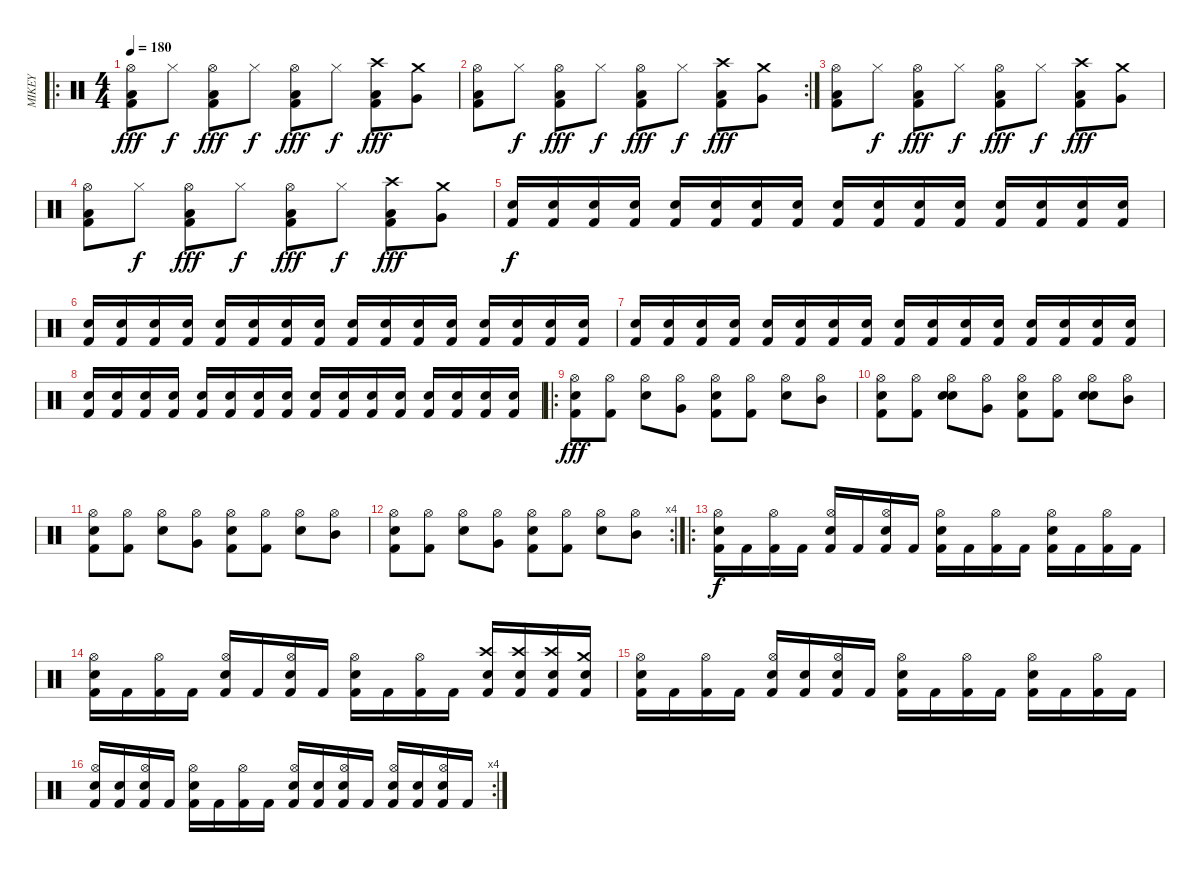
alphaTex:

\track ("MIKEY" "MIKEY") {instrument percussion}
\staff {score}
\articulation defaults
\ro
\ts (4 4)
\tempo 180
\clef neutral
\ks c
("Low Floor Tom (hit)" "Kick (hit) 2" "Hi-Hat (open)").8{dy fff} "Hi-Hat (closed)".8{dy f} ("Low Floor Tom (hit)" "Kick (hit) 2" "Hi-Hat (open)").8{dy fff} "Hi-Hat (closed)".8{dy f} ("Low Floor Tom (hit)" "Kick (hit) 2" "Hi-Hat (open)").8{dy fff} "Hi-Hat (closed)".8{dy f} ("Low Floor Tom (hit)" "Kick (hit) 2" "Crash high (hit)").8{dy fff} ("Very Low Tom (hit)" "Crash medium (hit)").8 |
\rc 2
("Low Floor Tom (hit)" "Kick (hit) 2" "Hi-Hat (open)").8 "Hi-Hat (closed)".8{dy f} ("Low Floor Tom (hit)" "Kick (hit) 2" "Hi-Hat (open)").8{dy fff} "Hi-Hat (closed)".8{dy f} ("Low Floor Tom (hit)" "Kick (hit) 2" "Hi-Hat (open)").8{dy fff} "Hi-Hat (closed)".8{dy f} ("Low Floor Tom (hit)" "Kick (hit) 2" "Crash high (hit)").8{dy fff} ("Very Low Tom (hit)" "Crash medium (hit)").8 |
("Low Floor Tom (hit)" "Kick (hit) 2" "Hi-Hat (open)").8 "Hi-Hat (closed)".8{dy f} ("Low Floor Tom (hit)" "Kick (hit) 2" "Hi-Hat (open)").8{dy fff} "Hi-Hat (closed)".8{dy f} ("Low Floor Tom (hit)" "Kick (hit) 2" "Hi-Hat (open)").8{dy fff} "Hi-Hat (closed)".8{dy f} ("Low Floor Tom (hit)" "Kick (hit) 2" "Crash high (hit)").8{dy fff} ("Very Low Tom (hit)" "Crash medium (hit)").8 |
("Low Floor Tom (hit)" "Kick (hit) 2" "Hi-Hat (open)").8 "Hi-Hat (closed)".8{dy f} ("Low Floor Tom (hit)" "Kick (hit) 2" "Hi-Hat (open)").8{dy fff} "Hi-Hat (closed)".8{dy f} ("Low Floor Tom (hit)" "Kick (hit) 2" "Hi-Hat (open)").8{dy fff} "Hi-Hat (closed)".8{dy f} ("Low Floor Tom (hit)" "Kick (hit) 2" "Crash high (hit)").8{dy fff} ("Very Low Tom (hit)" "Crash medium (hit)").8 |
("Kick (hit) 2" "Electric Snare (hit)").16{dy f} ("Kick (hit) 2" "Electric Snare (hit)").16 ("Kick (hit) 2" "Electric Snare (hit)").16 ("Kick (hit) 2" "Electric Snare (hit)").16 ("Kick (hit) 2" "Electric Snare (hit)").16 ("Kick (hit) 2" "Electric Snare (hit)").16 ("Kick (hit) 2" "Electric Snare (hit)").16 ("Kick (hit) 2" "Electric Snare (hit)").16 ("Kick (hit) 2" "Electric Snare (hit)").16 ("Kick (hit) 2" "Electric Snare (hit)").16 ("Kick (hit) 2" "Electric Snare (hit)").16 ("Kick (hit) 2" "Electric Snare (hit)").16 ("Kick (hit) 2" "Electric Snare (hit)").16 ("Kick (hit) 2" "Electric Snare (hit)").16 ("Kick (hit) 2" "Electric Snare (hit)").16 ("Kick (hit) 2" "Electric Snare (hit)").16 |
("Kick (hit) 2" "Electric Snare (hit)").16 ("Kick (hit) 2" "Electric Snare (hit)").16 ("Kick (hit) 2" "Electric Snare (hit)").16 ("Kick (hit) 2" "Electric Snare (hit)").16 ("Kick (hit) 2" "Electric Snare (hit)").16 ("Kick (hit) 2" "Electric Snare (hit)").16 ("Kick (hit) 2" "Electric Snare (hit)").16 ("Kick (hit) 2" "Electric Snare (hit)").16 ("Kick (hit) 2" "Electric Snare (hit)").16 ("Kick (hit) 2" "Electric Snare (hit)").16 ("Kick (hit) 2" "Electric Snare (hit)").16 ("Kick (hit) 2" "Electric Snare (hit)").16 ("Kick (hit) 2" "Electric Snare (hit)").16 ("Kick (hit) 2" "Electric Snare (hit)").16 ("Kick (hit) 2" "Electric Snare (hit)").16 ("Kick (hit) 2" "Electric Snare (hit)").16 |
("Kick (hit) 2" "Electric Snare (hit)").16 ("Kick (hit) 2" "Electric Snare (hit)").16 ("Kick (hit) 2" "Electric Snare (hit)").16 ("Kick (hit) 2" "Electric Snare (hit)").16 ("Kick (hit) 2" "Electric Snare (hit)").16 ("Kick (hit) 2" "Electric Snare (hit)").16 ("Kick (hit) 2" "Electric Snare (hit)").16 ("Kick (hit) 2" "Electric Snare (hit)").16 ("Kick (hit) 2" "Electric Snare (hit)").16 ("Kick (hit) 2" "Electric Snare (hit)").16 ("Kick (hit) 2" "Electric Snare (hit)").16 ("Kick (hit) 2" "Electric Snare (hit)").16 ("Kick (hit) 2" "Electric Snare (hit)").16 ("Kick (hit) 2" "Electric Snare (hit)").16 ("Kick (hit) 2" "Electric Snare (hit)").16 ("Kick (hit) 2" "Electric Snare (hit)").16 |
("Kick (hit) 2" "Electric Snare (hit)").16 ("Kick (hit) 2" "Electric Snare (hit)").16 ("Kick (hit) 2" "Electric Snare (hit)").16 ("Kick (hit) 2" "Electric Snare (hit)").16 ("Kick (hit) 2" "Electric Snare (hit)").16 ("Kick (hit) 2" "Electric Snare (hit)").16 ("Kick (hit) 2" "Electric Snare (hit)").16 ("Kick (hit) 2" "Electric Snare (hit)").16 ("Kick (hit) 2" "Electric Snare (hit)").16 ("Kick (hit) 2" "Electric Snare (hit)").16 ("Kick (hit) 2" "Electric Snare (hit)").16 ("Kick (hit) 2" "Electric Snare (hit)").16 ("Kick (hit) 2" "Electric Snare (hit)").16 ("Kick (hit) 2" "Electric Snare (hit)").16 ("Kick (hit) 2" "Electric Snare (hit)").16 ("Kick (hit) 2" "Electric Snare (hit)").16 |
\ro
("Electric Snare (hit)" "Hi-Hat (open)" "Kick (hit) 2").8{dy fff} ("Hi-Hat (open)" "Kick (hit) 2").8 ("Hi-Hat (open)" "Snare (hit) 2").8 ("Hi-Hat (open)" "Very Low Tom (hit)").8 ("Electric Snare (hit)" "Hi-Hat (open)" "Kick (hit) 2").8 ("Hi-Hat (open)" "Kick (hit) 2").8 ("Hi-Hat (open)" "Snare (hit) 2").8 ("Hi-Hat (open)" "Mid Tom (hit)").8 |
("Electric Snare (hit)" "Hi-Hat (open)" "Kick (hit) 2").8 ("Hi-Hat (open)" "Kick (hit) 2").8 ("Electric Snare (hit)" "Hi-Hat (open)" "Snare (hit) 2").8 ("Hi-Hat (open)" "Very Low Tom (hit)").8 ("Electric Snare (hit)" "Hi-Hat (open)" "Kick (hit) 2").8 ("Hi-Hat (open)" "Kick (hit) 2").8 ("Electric Snare (hit)" "Hi-Hat (open)" "Snare (hit) 2").8 ("Hi-Hat (open)" "Mid Tom (hit)").8 |
("Electric Snare (hit)" "Hi-Hat (open)" "Kick (hit) 2").8 ("Hi-Hat (open)" "Kick (hit) 2").8 ("Hi-Hat (open)" "Snare (hit) 2").8 ("Hi-Hat (open)" "Very Low Tom (hit)").8 ("Electric Snare (hit)" "Hi-Hat (open)" "Kick (hit) 2").8 ("Hi-Hat (open)" "Kick (hit) 2").8 ("Hi-Hat (open)" "Snare (hit) 2").8 ("Hi-Hat (open)" "Mid Tom (hit)").8 |
\rc 4
("Electric Snare (hit)" "Hi-Hat (open)" "Kick (hit) 2").8 ("Hi-Hat (open)" "Kick (hit) 2").8 ("Hi-Hat (open)" "Snare (hit) 2").8 ("Hi-Hat (open)" "Very Low Tom (hit)").8 ("Electric Snare (hit)" "Hi-Hat (open)" "Kick (hit) 2").8 ("Hi-Hat (open)" "Kick (hit) 2").8 ("Hi-Hat (open)" "Snare (hit) 2").8 ("Hi-Hat (open)" "Mid Tom (hit)").8 |
\ro
("Hi-Hat (open)" "Electric Snare (hit)" "Kick (hit) 2").16{dy f} "Kick (hit) 2".16 ("Hi-Hat (open)" "Kick (hit) 2").16 "Kick (hit) 2".16 ("Hi-Hat (open)" "Electric Snare (hit)" "Kick (hit) 2").16 "Kick (hit) 2".16 ("Hi-Hat (open)" "Electric Snare (hit)" "Kick (hit) 2").16 "Kick (hit) 2".16 ("Hi-Hat (open)" "Electric Snare (hit)" "Kick (hit) 2").16 "Kick (hit) 2".16 ("Hi-Hat (open)" "Kick (hit) 2").16 "Kick (hit) 2".16 ("Hi-Hat (open)" "Electric Snare (hit)" "Kick (hit) 2").16 "Kick (hit) 2".16 ("Hi-Hat (open)" "Kick (hit) 2").16 "Kick (hit) 2".16 |
("Hi-Hat (open)" "Electric Snare (hit)" "Kick (hit) 2").16 "Kick (hit) 2".16 ("Hi-Hat (open)" "Kick (hit) 2").16 "Kick (hit) 2".16 ("Hi-Hat (open)" "Electric Snare (hit)" "Kick (hit) 2").16 "Kick (hit) 2".16 ("Hi-Hat (open)" "Electric Snare (hit)" "Kick (hit) 2").16 "Kick (hit) 2".16 ("Hi-Hat (open)" "Electric Snare (hit)" "Kick (hit) 2").16 "Kick (hit) 2".16 ("Hi-Hat (open)" "Kick (hit) 2").16 "Kick (hit) 2".16 ("Crash high (hit)" "Electric Snare (hit)" "Kick (hit) 2").16 ("Crash high (hit)" "Electric Snare (hit)" "Kick (hit) 2").16 ("Crash high (hit)" "Electric Snare (hit)" "Kick (hit) 2").16 ("Crash medium (hit)" "Electric Snare (hit)" "Kick (hit) 2").16 |
("Hi-Hat (open)" "Snare (hit) 2" "Kick (hit) 2").16 "Kick (hit) 2".16 ("Hi-Hat (open)" "Kick (hit) 2").16 "Kick (hit) 2".16 ("Hi-Hat (open)" "Snare (hit) 2" "Kick (hit) 2").16 ("Snare (hit) 2" "Kick (hit) 2").16 ("Hi-Hat (open)" "Snare (hit) 2" "Kick (hit) 2").16 "Kick (hit) 2".16 ("Hi-Hat (open)" "Snare (hit) 2" "Kick (hit) 2").16 "Kick (hit) 2".16 ("Hi-Hat (open)" "Kick (hit) 2").16 "Kick (hit) 2".16 ("Hi-Hat (open)" "Snare (hit) 2" "Kick (hit) 2").16 "Kick (hit) 2".16 ("Hi-Hat (open)" "Kick (hit) 2").16 "Kick (hit) 2".16 |
\rc 4
("Hi-Hat (open)" "Snare (hit) 2" "Kick (hit) 2").16 ("Snare (hit) 2" "Kick (hit) 2").16 ("Hi-Hat (open)" "Snare (hit) 2" "Kick (hit) 2").16 "Kick (hit) 2".16 ("Hi-Hat (open)" "Snare (hit) 2" "Kick (hit) 2").16 "Kick (hit) 2".16 ("Hi-Hat (open)" "Kick (hit) 2").16 "Kick (hit) 2".16 ("Hi-Hat (open)" "Snare (hit) 2" "Kick (hit) 2").16 ("Snare (hit) 2" "Kick (hit) 2").16 ("Hi-Hat (open)" "Snare (hit) 2" "Kick (hit) 2").16 "Kick (hit) 2".16 ("Hi-Hat (open)" "Snare (hit) 2" "Kick (hit) 2").16 ("Snare (hit) 2" "Kick (hit) 2").16 ("Hi-Hat (open)" "Snare (hit) 2" "Kick (hit) 2").16 "Kick (hit) 2".16
